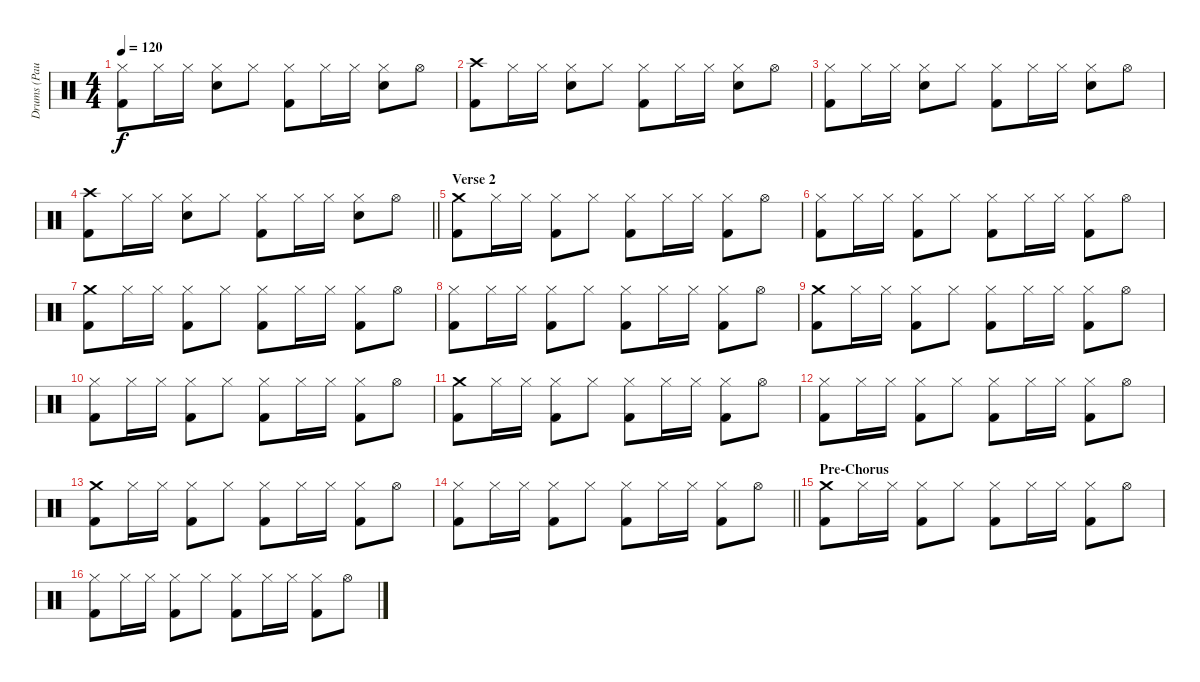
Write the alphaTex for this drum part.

\track ("Drums (Paul Thompson)" "Drums (Pau") {instrument percussion}
\staff {score}
\articulation defaults
\ts (4 4)
\tempo 120
\clef neutral
\ks c
("Hi-Hat (closed)" "Kick (hit) 2").8{dy f} "Hi-Hat (closed)".16 "Hi-Hat (closed)".16 ("Hi-Hat (closed)" "Snare (hit) 2").8 "Hi-Hat (closed)".8 ("Hi-Hat (closed)" "Kick (hit) 2").8 "Hi-Hat (closed)".16 "Hi-Hat (closed)".16 ("Hi-Hat (closed)" "Snare (hit) 2").8 "Hi-Hat (open)".8 |
("Crash high (hit)" "Kick (hit) 2").8 "Hi-Hat (closed)".16 "Hi-Hat (closed)".16 ("Hi-Hat (closed)" "Snare (hit) 2").8 "Hi-Hat (closed)".8 ("Hi-Hat (closed)" "Kick (hit) 2").8 "Hi-Hat (closed)".16 "Hi-Hat (closed)".16 ("Hi-Hat (closed)" "Snare (hit) 2").8 "Hi-Hat (open)".8 |
("Hi-Hat (closed)" "Kick (hit) 2").8 "Hi-Hat (closed)".16 "Hi-Hat (closed)".16 ("Hi-Hat (closed)" "Snare (hit) 2").8 "Hi-Hat (closed)".8 ("Hi-Hat (closed)" "Kick (hit) 2").8 "Hi-Hat (closed)".16 "Hi-Hat (closed)".16 ("Hi-Hat (closed)" "Snare (hit) 2").8 "Hi-Hat (open)".8 |
\barLineRight lightlight
("Crash high (hit)" "Kick (hit) 2").8 "Hi-Hat (closed)".16 "Hi-Hat (closed)".16 ("Hi-Hat (closed)" "Snare (hit) 2").8 "Hi-Hat (closed)".8 ("Hi-Hat (closed)" "Kick (hit) 2").8 "Hi-Hat (closed)".16 "Hi-Hat (closed)".16 ("Hi-Hat (closed)" "Snare (hit) 2").8 "Hi-Hat (open)".8 |
\section ("" "Verse 2")
("Crash medium (hit)" "Kick (hit) 2").8 "Hi-Hat (closed)".16 "Hi-Hat (closed)".16 ("Hi-Hat (closed)" "Kick (hit) 2").8 "Hi-Hat (closed)".8 ("Hi-Hat (closed)" "Kick (hit) 2").8 "Hi-Hat (closed)".16 "Hi-Hat (closed)".16 ("Hi-Hat (closed)" "Kick (hit) 2").8 "Hi-Hat (open)".8 |
("Hi-Hat (closed)" "Kick (hit) 2").8 "Hi-Hat (closed)".16 "Hi-Hat (closed)".16 ("Hi-Hat (closed)" "Kick (hit) 2").8 "Hi-Hat (closed)".8 ("Hi-Hat (closed)" "Kick (hit) 2").8 "Hi-Hat (closed)".16 "Hi-Hat (closed)".16 ("Hi-Hat (closed)" "Kick (hit) 2").8 "Hi-Hat (open)".8 |
("Crash medium (hit)" "Kick (hit) 2").8 "Hi-Hat (closed)".16 "Hi-Hat (closed)".16 ("Hi-Hat (closed)" "Kick (hit) 2").8 "Hi-Hat (closed)".8 ("Hi-Hat (closed)" "Kick (hit) 2").8 "Hi-Hat (closed)".16 "Hi-Hat (closed)".16 ("Hi-Hat (closed)" "Kick (hit) 2").8 "Hi-Hat (open)".8 |
("Hi-Hat (closed)" "Kick (hit) 2").8 "Hi-Hat (closed)".16 "Hi-Hat (closed)".16 ("Hi-Hat (closed)" "Kick (hit) 2").8 "Hi-Hat (closed)".8 ("Hi-Hat (closed)" "Kick (hit) 2").8 "Hi-Hat (closed)".16 "Hi-Hat (closed)".16 ("Hi-Hat (closed)" "Kick (hit) 2").8 "Hi-Hat (open)".8 |
("Crash medium (hit)" "Kick (hit) 2").8 "Hi-Hat (closed)".16 "Hi-Hat (closed)".16 ("Hi-Hat (closed)" "Kick (hit) 2").8 "Hi-Hat (closed)".8 ("Hi-Hat (closed)" "Kick (hit) 2").8 "Hi-Hat (closed)".16 "Hi-Hat (closed)".16 ("Hi-Hat (closed)" "Kick (hit) 2").8 "Hi-Hat (open)".8 |
("Hi-Hat (closed)" "Kick (hit) 2").8 "Hi-Hat (closed)".16 "Hi-Hat (closed)".16 ("Hi-Hat (closed)" "Kick (hit) 2").8 "Hi-Hat (closed)".8 ("Hi-Hat (closed)" "Kick (hit) 2").8 "Hi-Hat (closed)".16 "Hi-Hat (closed)".16 ("Hi-Hat (closed)" "Kick (hit) 2").8 "Hi-Hat (open)".8 |
("Crash medium (hit)" "Kick (hit) 2").8 "Hi-Hat (closed)".16 "Hi-Hat (closed)".16 ("Hi-Hat (closed)" "Kick (hit) 2").8 "Hi-Hat (closed)".8 ("Hi-Hat (closed)" "Kick (hit) 2").8 "Hi-Hat (closed)".16 "Hi-Hat (closed)".16 ("Hi-Hat (closed)" "Kick (hit) 2").8 "Hi-Hat (open)".8 |
("Hi-Hat (closed)" "Kick (hit) 2").8 "Hi-Hat (closed)".16 "Hi-Hat (closed)".16 ("Hi-Hat (closed)" "Kick (hit) 2").8 "Hi-Hat (closed)".8 ("Hi-Hat (closed)" "Kick (hit) 2").8 "Hi-Hat (closed)".16 "Hi-Hat (closed)".16 ("Hi-Hat (closed)" "Kick (hit) 2").8 "Hi-Hat (open)".8 |
("Crash medium (hit)" "Kick (hit) 2").8 "Hi-Hat (closed)".16 "Hi-Hat (closed)".16 ("Hi-Hat (closed)" "Kick (hit) 2").8 "Hi-Hat (closed)".8 ("Hi-Hat (closed)" "Kick (hit) 2").8 "Hi-Hat (closed)".16 "Hi-Hat (closed)".16 ("Hi-Hat (closed)" "Kick (hit) 2").8 "Hi-Hat (open)".8 |
\barLineRight lightlight
("Hi-Hat (closed)" "Kick (hit) 2").8 "Hi-Hat (closed)".16 "Hi-Hat (closed)".16 ("Hi-Hat (closed)" "Kick (hit) 2").8 "Hi-Hat (closed)".8 ("Hi-Hat (closed)" "Kick (hit) 2").8 "Hi-Hat (closed)".16 "Hi-Hat (closed)".16 ("Hi-Hat (closed)" "Kick (hit) 2").8 "Hi-Hat (open)".8 |
\section ("" "Pre-Chorus")
("Crash medium (hit)" "Kick (hit) 2").8 "Hi-Hat (closed)".16 "Hi-Hat (closed)".16 ("Hi-Hat (closed)" "Kick (hit) 2").8 "Hi-Hat (closed)".8 ("Hi-Hat (closed)" "Kick (hit) 2").8 "Hi-Hat (closed)".16 "Hi-Hat (closed)".16 ("Hi-Hat (closed)" "Kick (hit) 2").8 "Hi-Hat (open)".8 |
("Hi-Hat (closed)" "Kick (hit) 2").8 "Hi-Hat (closed)".16 "Hi-Hat (closed)".16 ("Hi-Hat (closed)" "Kick (hit) 2").8 "Hi-Hat (closed)".8 ("Hi-Hat (closed)" "Kick (hit) 2").8 "Hi-Hat (closed)".16 "Hi-Hat (closed)".16 ("Hi-Hat (closed)" "Kick (hit) 2").8 "Hi-Hat (open)".8
